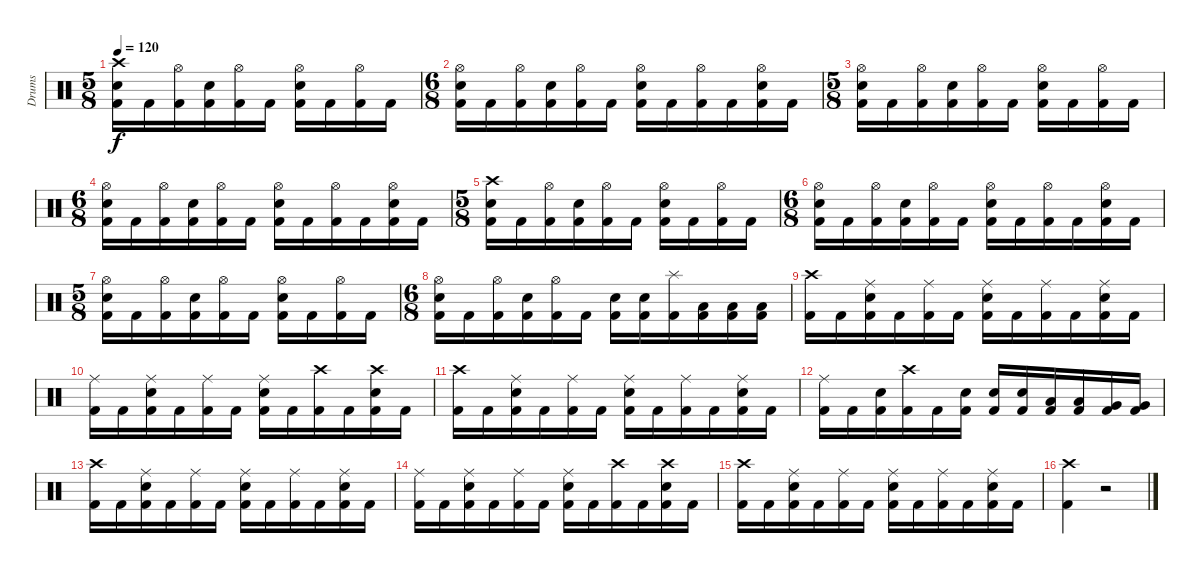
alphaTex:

\track ("Drums" "Drums") {instrument percussion}
\staff {score}
\articulation defaults
\ts (5 8)
\tempo 120
\clef neutral
\ks c
("Crash high (hit)" "Snare (hit) 2" "Kick (hit) 2").16{dy f} "Kick (hit) 2".16 ("Hi-Hat (open)" "Kick (hit) 2").16 ("Snare (hit) 2" "Kick (hit) 2").16 ("Hi-Hat (open)" "Kick (hit) 2").16 "Kick (hit) 2".16 ("Hi-Hat (open)" "Snare (hit) 2" "Kick (hit) 2").16 "Kick (hit) 2".16 ("Hi-Hat (open)" "Kick (hit) 2").16 "Kick (hit) 2".16 |
\ts (6 8)
("Hi-Hat (open)" "Snare (hit) 2" "Kick (hit) 2").16 "Kick (hit) 2".16 ("Hi-Hat (open)" "Kick (hit) 2").16 ("Snare (hit) 2" "Kick (hit) 2").16 ("Hi-Hat (open)" "Kick (hit) 2").16 "Kick (hit) 2".16 ("Hi-Hat (open)" "Snare (hit) 2" "Kick (hit) 2").16 "Kick (hit) 2".16 ("Hi-Hat (open)" "Kick (hit) 2").16 "Kick (hit) 2".16 ("Hi-Hat (open)" "Snare (hit) 2" "Kick (hit) 2").16 "Kick (hit) 2".16 |
\ts (5 8)
("Hi-Hat (open)" "Snare (hit) 2" "Kick (hit) 2").16 "Kick (hit) 2".16 ("Hi-Hat (open)" "Kick (hit) 2").16 ("Snare (hit) 2" "Kick (hit) 2").16 ("Hi-Hat (open)" "Kick (hit) 2").16 "Kick (hit) 2".16 ("Hi-Hat (open)" "Snare (hit) 2" "Kick (hit) 2").16 "Kick (hit) 2".16 ("Hi-Hat (open)" "Kick (hit) 2").16 "Kick (hit) 2".16 |
\ts (6 8)
("Hi-Hat (open)" "Snare (hit) 2" "Kick (hit) 2").16 "Kick (hit) 2".16 ("Hi-Hat (open)" "Kick (hit) 2").16 ("Snare (hit) 2" "Kick (hit) 2").16 ("Hi-Hat (open)" "Kick (hit) 2").16 "Kick (hit) 2".16 ("Hi-Hat (open)" "Snare (hit) 2" "Kick (hit) 2").16 "Kick (hit) 2".16 ("Hi-Hat (open)" "Kick (hit) 2").16 "Kick (hit) 2".16 ("Hi-Hat (open)" "Snare (hit) 2" "Kick (hit) 2").16 "Kick (hit) 2".16 |
\ts (5 8)
("Crash high (hit)" "Snare (hit) 2" "Kick (hit) 2").16 "Kick (hit) 2".16 ("Hi-Hat (open)" "Kick (hit) 2").16 ("Snare (hit) 2" "Kick (hit) 2").16 ("Hi-Hat (open)" "Kick (hit) 2").16 "Kick (hit) 2".16 ("Hi-Hat (open)" "Snare (hit) 2" "Kick (hit) 2").16 "Kick (hit) 2".16 ("Hi-Hat (open)" "Kick (hit) 2").16 "Kick (hit) 2".16 |
\ts (6 8)
("Hi-Hat (open)" "Snare (hit) 2" "Kick (hit) 2").16 "Kick (hit) 2".16 ("Hi-Hat (open)" "Kick (hit) 2").16 ("Snare (hit) 2" "Kick (hit) 2").16 ("Hi-Hat (open)" "Kick (hit) 2").16 "Kick (hit) 2".16 ("Hi-Hat (open)" "Snare (hit) 2" "Kick (hit) 2").16 "Kick (hit) 2".16 ("Hi-Hat (open)" "Kick (hit) 2").16 "Kick (hit) 2".16 ("Hi-Hat (open)" "Snare (hit) 2" "Kick (hit) 2").16 "Kick (hit) 2".16 |
\ts (5 8)
("Hi-Hat (open)" "Snare (hit) 2" "Kick (hit) 2").16 "Kick (hit) 2".16 ("Hi-Hat (open)" "Kick (hit) 2").16 ("Snare (hit) 2" "Kick (hit) 2").16 ("Hi-Hat (open)" "Kick (hit) 2").16 "Kick (hit) 2".16 ("Hi-Hat (open)" "Snare (hit) 2" "Kick (hit) 2").16 "Kick (hit) 2".16 ("Hi-Hat (open)" "Kick (hit) 2").16 "Kick (hit) 2".16 |
\ts (6 8)
("Hi-Hat (open)" "Snare (hit) 2" "Kick (hit) 2").16 "Kick (hit) 2".16 ("Hi-Hat (open)" "Kick (hit) 2").16 ("Snare (hit) 2" "Kick (hit) 2").16 ("Hi-Hat (open)" "Kick (hit) 2").16 "Kick (hit) 2".16 ("Snare (hit) 2" "Kick (hit) 2").16 ("Snare (hit) 2" "Kick (hit) 2").16 ("Splash (hit)" "Kick (hit) 2").16 ("Low Tom (hit)" "Kick (hit) 2").16 ("Low Tom (hit)" "Kick (hit) 2").16 ("Low Tom (hit)" "Kick (hit) 2").16 |
("Crash high (hit)" "Kick (hit) 2").16 "Kick (hit) 2".16 ("Ride (middle)" "Snare (hit) 2" "Kick (hit) 2").16 "Kick (hit) 2".16 ("Ride (middle)" "Kick (hit) 2").16 "Kick (hit) 2".16 ("Ride (middle)" "Snare (hit) 2" "Kick (hit) 2").16 "Kick (hit) 2".16 ("Ride (middle)" "Kick (hit) 2").16 "Kick (hit) 2".16 ("Ride (middle)" "Snare (hit) 2" "Kick (hit) 2").16 "Kick (hit) 2".16 |
("Ride (middle)" "Kick (hit) 2").16 "Kick (hit) 2".16 ("Ride (middle)" "Snare (hit) 2" "Kick (hit) 2").16 "Kick (hit) 2".16 ("Ride (middle)" "Kick (hit) 2").16 "Kick (hit) 2".16 ("Ride (middle)" "Snare (hit) 2" "Kick (hit) 2").16 "Kick (hit) 2".16 ("Crash high (hit)" "Kick (hit) 2").16 "Kick (hit) 2".16 ("Crash high (hit)" "Snare (hit) 2" "Kick (hit) 2").16 "Kick (hit) 2".16 |
("Crash high (hit)" "Kick (hit) 2").16 "Kick (hit) 2".16 ("Ride (middle)" "Snare (hit) 2" "Kick (hit) 2").16 "Kick (hit) 2".16 ("Ride (middle)" "Kick (hit) 2").16 "Kick (hit) 2".16 ("Ride (middle)" "Snare (hit) 2" "Kick (hit) 2").16 "Kick (hit) 2".16 ("Ride (middle)" "Kick (hit) 2").16 "Kick (hit) 2".16 ("Ride (middle)" "Snare (hit) 2" "Kick (hit) 2").16 "Kick (hit) 2".16 |
("Ride (middle)" "Kick (hit) 2").16 "Kick (hit) 2".16 ("Snare (hit) 2" "Kick (hit) 2").16 ("Crash high (hit)" "Kick (hit) 2").16 "Kick (hit) 2".16 ("Snare (hit) 2" "Kick (hit) 2").16 ("Snare (hit) 2" "Kick (hit) 2").16 ("Snare (hit) 2" "Kick (hit) 2").16 ("Low Tom (hit)" "Kick (hit) 2").16 ("Low Tom (hit)" "Kick (hit) 2").16 ("Very Low Tom (hit)" "Kick (hit) 2").16 ("Very Low Tom (hit)" "Kick (hit) 2").16 |
("Crash high (hit)" "Kick (hit) 2").16 "Kick (hit) 2".16 ("Ride (middle)" "Snare (hit) 2" "Kick (hit) 2").16 "Kick (hit) 2".16 ("Ride (middle)" "Kick (hit) 2").16 "Kick (hit) 2".16 ("Ride (middle)" "Snare (hit) 2" "Kick (hit) 2").16 "Kick (hit) 2".16 ("Ride (middle)" "Kick (hit) 2").16 "Kick (hit) 2".16 ("Ride (middle)" "Snare (hit) 2" "Kick (hit) 2").16 "Kick (hit) 2".16 |
("Ride (middle)" "Kick (hit) 2").16 "Kick (hit) 2".16 ("Ride (middle)" "Snare (hit) 2" "Kick (hit) 2").16 "Kick (hit) 2".16 ("Ride (middle)" "Kick (hit) 2").16 "Kick (hit) 2".16 ("Ride (middle)" "Snare (hit) 2" "Kick (hit) 2").16 "Kick (hit) 2".16 ("Crash high (hit)" "Kick (hit) 2").16 "Kick (hit) 2".16 ("Crash high (hit)" "Snare (hit) 2" "Kick (hit) 2").16 "Kick (hit) 2".16 |
("Crash high (hit)" "Kick (hit) 2").16 "Kick (hit) 2".16 ("Ride (middle)" "Snare (hit) 2" "Kick (hit) 2").16 "Kick (hit) 2".16 ("Ride (middle)" "Kick (hit) 2").16 "Kick (hit) 2".16 ("Ride (middle)" "Snare (hit) 2" "Kick (hit) 2").16 "Kick (hit) 2".16 ("Ride (middle)" "Kick (hit) 2").16 "Kick (hit) 2".16 ("Ride (middle)" "Snare (hit) 2" "Kick (hit) 2").16 "Kick (hit) 2".16 |
("Crash high (hit)" "Kick (hit) 2").4 r.2
